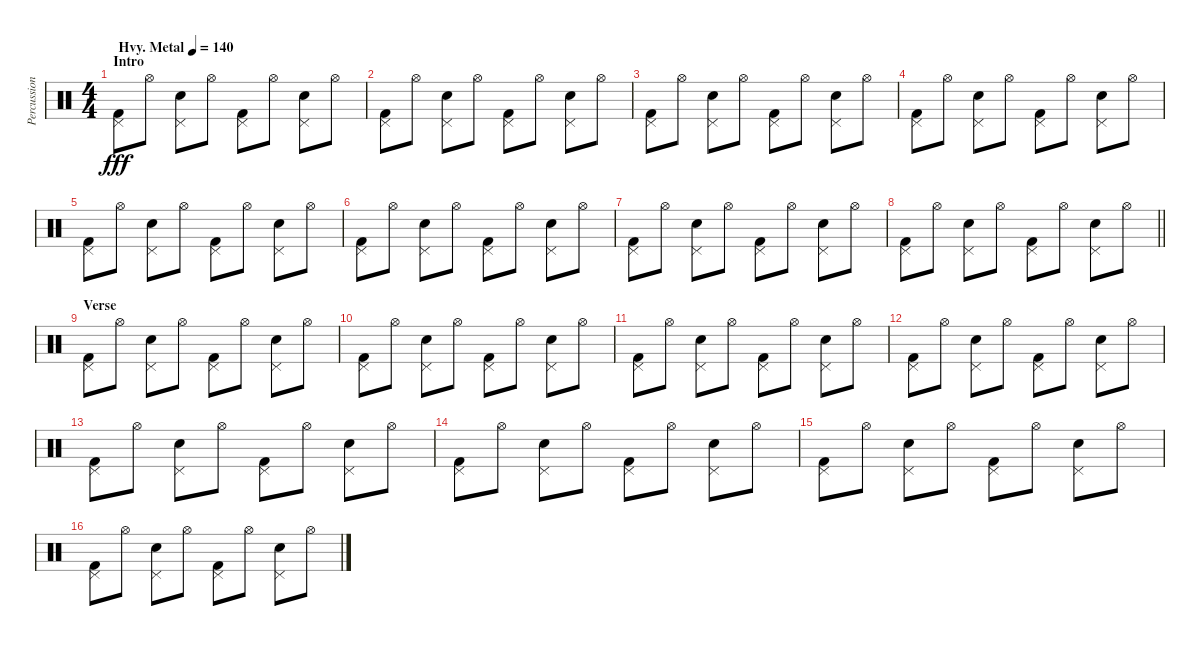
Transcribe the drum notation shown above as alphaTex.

\track ("Percussion" "Percussion") {instrument percussion}
\staff {score}
\articulation defaults
\ts (4 4)
\section ("" "Intro")
\tempo (140 "Hvy. Metal")
\clef neutral
\ks c
("Pedal Hi-Hat (hit)" "Kick (hit) 2").8{dy fff} "Hi-Hat (open)".8 ("Pedal Hi-Hat (hit)" "Electric Snare (hit)").8 "Hi-Hat (open)".8 ("Pedal Hi-Hat (hit)" "Kick (hit) 2").8 "Hi-Hat (open)".8 ("Pedal Hi-Hat (hit)" "Electric Snare (hit)").8 "Hi-Hat (open)".8 |
("Pedal Hi-Hat (hit)" "Kick (hit) 2").8 "Hi-Hat (open)".8 ("Pedal Hi-Hat (hit)" "Electric Snare (hit)").8 "Hi-Hat (open)".8 ("Pedal Hi-Hat (hit)" "Kick (hit) 2").8 "Hi-Hat (open)".8 ("Pedal Hi-Hat (hit)" "Electric Snare (hit)").8 "Hi-Hat (open)".8 |
("Pedal Hi-Hat (hit)" "Kick (hit) 2").8 "Hi-Hat (open)".8 ("Pedal Hi-Hat (hit)" "Electric Snare (hit)").8 "Hi-Hat (open)".8 ("Pedal Hi-Hat (hit)" "Kick (hit) 2").8 "Hi-Hat (open)".8 ("Pedal Hi-Hat (hit)" "Electric Snare (hit)").8 "Hi-Hat (open)".8 |
("Pedal Hi-Hat (hit)" "Kick (hit) 2").8 "Hi-Hat (open)".8 ("Pedal Hi-Hat (hit)" "Electric Snare (hit)").8 "Hi-Hat (open)".8 ("Pedal Hi-Hat (hit)" "Kick (hit) 2").8 "Hi-Hat (open)".8 ("Pedal Hi-Hat (hit)" "Electric Snare (hit)").8 "Hi-Hat (open)".8 |
("Pedal Hi-Hat (hit)" "Kick (hit) 2").8 "Hi-Hat (open)".8 ("Pedal Hi-Hat (hit)" "Electric Snare (hit)").8 "Hi-Hat (open)".8 ("Pedal Hi-Hat (hit)" "Kick (hit) 2").8 "Hi-Hat (open)".8 ("Pedal Hi-Hat (hit)" "Electric Snare (hit)").8 "Hi-Hat (open)".8 |
("Pedal Hi-Hat (hit)" "Kick (hit) 2").8 "Hi-Hat (open)".8 ("Pedal Hi-Hat (hit)" "Electric Snare (hit)").8 "Hi-Hat (open)".8 ("Pedal Hi-Hat (hit)" "Kick (hit) 2").8 "Hi-Hat (open)".8 ("Pedal Hi-Hat (hit)" "Electric Snare (hit)").8 "Hi-Hat (open)".8 |
("Pedal Hi-Hat (hit)" "Kick (hit) 2").8 "Hi-Hat (open)".8 ("Pedal Hi-Hat (hit)" "Electric Snare (hit)").8 "Hi-Hat (open)".8 ("Pedal Hi-Hat (hit)" "Kick (hit) 2").8 "Hi-Hat (open)".8 ("Pedal Hi-Hat (hit)" "Electric Snare (hit)").8 "Hi-Hat (open)".8 |
\barLineRight lightlight
("Pedal Hi-Hat (hit)" "Kick (hit) 2").8 "Hi-Hat (open)".8 ("Pedal Hi-Hat (hit)" "Electric Snare (hit)").8 "Hi-Hat (open)".8 ("Pedal Hi-Hat (hit)" "Kick (hit) 2").8 "Hi-Hat (open)".8 ("Pedal Hi-Hat (hit)" "Electric Snare (hit)").8 "Hi-Hat (open)".8 |
\section ("" "Verse")
("Pedal Hi-Hat (hit)" "Kick (hit) 2").8 "Hi-Hat (open)".8 ("Pedal Hi-Hat (hit)" "Electric Snare (hit)").8 "Hi-Hat (open)".8 ("Pedal Hi-Hat (hit)" "Kick (hit) 2").8 "Hi-Hat (open)".8 ("Pedal Hi-Hat (hit)" "Electric Snare (hit)").8 "Hi-Hat (open)".8 |
("Pedal Hi-Hat (hit)" "Kick (hit) 2").8 "Hi-Hat (open)".8 ("Pedal Hi-Hat (hit)" "Electric Snare (hit)").8 "Hi-Hat (open)".8 ("Pedal Hi-Hat (hit)" "Kick (hit) 2").8 "Hi-Hat (open)".8 ("Pedal Hi-Hat (hit)" "Electric Snare (hit)").8 "Hi-Hat (open)".8 |
("Pedal Hi-Hat (hit)" "Kick (hit) 2").8 "Hi-Hat (open)".8 ("Pedal Hi-Hat (hit)" "Electric Snare (hit)").8 "Hi-Hat (open)".8 ("Pedal Hi-Hat (hit)" "Kick (hit) 2").8 "Hi-Hat (open)".8 ("Pedal Hi-Hat (hit)" "Electric Snare (hit)").8 "Hi-Hat (open)".8 |
("Pedal Hi-Hat (hit)" "Kick (hit) 2").8 "Hi-Hat (open)".8 ("Pedal Hi-Hat (hit)" "Electric Snare (hit)").8 "Hi-Hat (open)".8 ("Pedal Hi-Hat (hit)" "Kick (hit) 2").8 "Hi-Hat (open)".8 ("Pedal Hi-Hat (hit)" "Electric Snare (hit)").8 "Hi-Hat (open)".8 |
("Pedal Hi-Hat (hit)" "Kick (hit) 2").8 "Hi-Hat (open)".8 ("Pedal Hi-Hat (hit)" "Electric Snare (hit)").8 "Hi-Hat (open)".8 ("Pedal Hi-Hat (hit)" "Kick (hit) 2").8 "Hi-Hat (open)".8 ("Pedal Hi-Hat (hit)" "Electric Snare (hit)").8 "Hi-Hat (open)".8 |
("Pedal Hi-Hat (hit)" "Kick (hit) 2").8 "Hi-Hat (open)".8 ("Pedal Hi-Hat (hit)" "Electric Snare (hit)").8 "Hi-Hat (open)".8 ("Pedal Hi-Hat (hit)" "Kick (hit) 2").8 "Hi-Hat (open)".8 ("Pedal Hi-Hat (hit)" "Electric Snare (hit)").8 "Hi-Hat (open)".8 |
("Pedal Hi-Hat (hit)" "Kick (hit) 2").8 "Hi-Hat (open)".8 ("Pedal Hi-Hat (hit)" "Electric Snare (hit)").8 "Hi-Hat (open)".8 ("Pedal Hi-Hat (hit)" "Kick (hit) 2").8 "Hi-Hat (open)".8 ("Pedal Hi-Hat (hit)" "Electric Snare (hit)").8 "Hi-Hat (open)".8 |
("Pedal Hi-Hat (hit)" "Kick (hit) 2").8 "Hi-Hat (open)".8 ("Pedal Hi-Hat (hit)" "Electric Snare (hit)").8 "Hi-Hat (open)".8 ("Pedal Hi-Hat (hit)" "Kick (hit) 2").8 "Hi-Hat (open)".8 ("Pedal Hi-Hat (hit)" "Electric Snare (hit)").8 "Hi-Hat (open)".8
